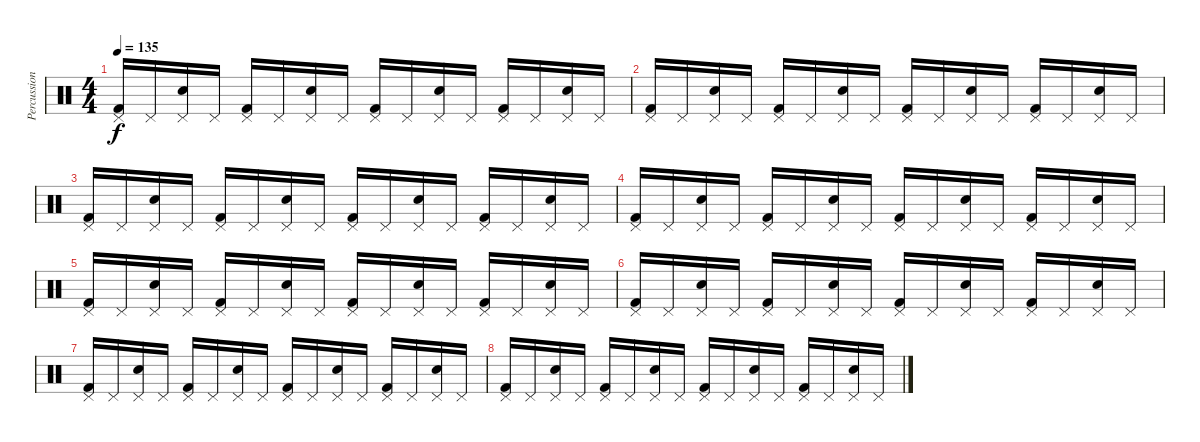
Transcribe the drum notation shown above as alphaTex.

\track ("Percussion" "Percussion") {instrument percussion}
\staff {score}
\articulation defaults
\ts (4 4)
\tempo 135
\clef neutral
\ks c
("Kick (hit) 2" "Pedal Hi-Hat (hit)").16{dy f} "Pedal Hi-Hat (hit)".16 ("Snare (hit) 2" "Pedal Hi-Hat (hit)").16 "Pedal Hi-Hat (hit)".16 ("Kick (hit) 2" "Pedal Hi-Hat (hit)").16 "Pedal Hi-Hat (hit)".16 ("Snare (hit) 2" "Pedal Hi-Hat (hit)").16 "Pedal Hi-Hat (hit)".16 ("Kick (hit) 2" "Pedal Hi-Hat (hit)").16 "Pedal Hi-Hat (hit)".16 ("Snare (hit) 2" "Pedal Hi-Hat (hit)").16 "Pedal Hi-Hat (hit)".16 ("Kick (hit) 2" "Pedal Hi-Hat (hit)").16 "Pedal Hi-Hat (hit)".16 ("Snare (hit) 2" "Pedal Hi-Hat (hit)").16 "Pedal Hi-Hat (hit)".16 |
("Kick (hit) 2" "Pedal Hi-Hat (hit)").16 "Pedal Hi-Hat (hit)".16 ("Snare (hit) 2" "Pedal Hi-Hat (hit)").16 "Pedal Hi-Hat (hit)".16 ("Kick (hit) 2" "Pedal Hi-Hat (hit)").16 "Pedal Hi-Hat (hit)".16 ("Snare (hit) 2" "Pedal Hi-Hat (hit)").16 "Pedal Hi-Hat (hit)".16 ("Kick (hit) 2" "Pedal Hi-Hat (hit)").16 "Pedal Hi-Hat (hit)".16 ("Snare (hit) 2" "Pedal Hi-Hat (hit)").16 "Pedal Hi-Hat (hit)".16 ("Kick (hit) 2" "Pedal Hi-Hat (hit)").16 "Pedal Hi-Hat (hit)".16 ("Snare (hit) 2" "Pedal Hi-Hat (hit)").16 "Pedal Hi-Hat (hit)".16 |
("Kick (hit) 2" "Pedal Hi-Hat (hit)").16 "Pedal Hi-Hat (hit)".16 ("Snare (hit) 2" "Pedal Hi-Hat (hit)").16 "Pedal Hi-Hat (hit)".16 ("Kick (hit) 2" "Pedal Hi-Hat (hit)").16 "Pedal Hi-Hat (hit)".16 ("Snare (hit) 2" "Pedal Hi-Hat (hit)").16 "Pedal Hi-Hat (hit)".16 ("Kick (hit) 2" "Pedal Hi-Hat (hit)").16 "Pedal Hi-Hat (hit)".16 ("Snare (hit) 2" "Pedal Hi-Hat (hit)").16 "Pedal Hi-Hat (hit)".16 ("Kick (hit) 2" "Pedal Hi-Hat (hit)").16 "Pedal Hi-Hat (hit)".16 ("Snare (hit) 2" "Pedal Hi-Hat (hit)").16 "Pedal Hi-Hat (hit)".16 |
("Kick (hit) 2" "Pedal Hi-Hat (hit)").16 "Pedal Hi-Hat (hit)".16 ("Snare (hit) 2" "Pedal Hi-Hat (hit)").16 "Pedal Hi-Hat (hit)".16 ("Kick (hit) 2" "Pedal Hi-Hat (hit)").16 "Pedal Hi-Hat (hit)".16 ("Snare (hit) 2" "Pedal Hi-Hat (hit)").16 "Pedal Hi-Hat (hit)".16 ("Kick (hit) 2" "Pedal Hi-Hat (hit)").16 "Pedal Hi-Hat (hit)".16 ("Snare (hit) 2" "Pedal Hi-Hat (hit)").16 "Pedal Hi-Hat (hit)".16 ("Kick (hit) 2" "Pedal Hi-Hat (hit)").16 "Pedal Hi-Hat (hit)".16 ("Snare (hit) 2" "Pedal Hi-Hat (hit)").16 "Pedal Hi-Hat (hit)".16 |
("Kick (hit) 2" "Pedal Hi-Hat (hit)").16 "Pedal Hi-Hat (hit)".16 ("Snare (hit) 2" "Pedal Hi-Hat (hit)").16 "Pedal Hi-Hat (hit)".16 ("Kick (hit) 2" "Pedal Hi-Hat (hit)").16 "Pedal Hi-Hat (hit)".16 ("Snare (hit) 2" "Pedal Hi-Hat (hit)").16 "Pedal Hi-Hat (hit)".16 ("Kick (hit) 2" "Pedal Hi-Hat (hit)").16 "Pedal Hi-Hat (hit)".16 ("Snare (hit) 2" "Pedal Hi-Hat (hit)").16 "Pedal Hi-Hat (hit)".16 ("Kick (hit) 2" "Pedal Hi-Hat (hit)").16 "Pedal Hi-Hat (hit)".16 ("Snare (hit) 2" "Pedal Hi-Hat (hit)").16 "Pedal Hi-Hat (hit)".16 |
("Kick (hit) 2" "Pedal Hi-Hat (hit)").16 "Pedal Hi-Hat (hit)".16 ("Snare (hit) 2" "Pedal Hi-Hat (hit)").16 "Pedal Hi-Hat (hit)".16 ("Kick (hit) 2" "Pedal Hi-Hat (hit)").16 "Pedal Hi-Hat (hit)".16 ("Snare (hit) 2" "Pedal Hi-Hat (hit)").16 "Pedal Hi-Hat (hit)".16 ("Kick (hit) 2" "Pedal Hi-Hat (hit)").16 "Pedal Hi-Hat (hit)".16 ("Snare (hit) 2" "Pedal Hi-Hat (hit)").16 "Pedal Hi-Hat (hit)".16 ("Kick (hit) 2" "Pedal Hi-Hat (hit)").16 "Pedal Hi-Hat (hit)".16 ("Snare (hit) 2" "Pedal Hi-Hat (hit)").16 "Pedal Hi-Hat (hit)".16 |
("Kick (hit) 2" "Pedal Hi-Hat (hit)").16 "Pedal Hi-Hat (hit)".16 ("Snare (hit) 2" "Pedal Hi-Hat (hit)").16 "Pedal Hi-Hat (hit)".16 ("Kick (hit) 2" "Pedal Hi-Hat (hit)").16 "Pedal Hi-Hat (hit)".16 ("Snare (hit) 2" "Pedal Hi-Hat (hit)").16 "Pedal Hi-Hat (hit)".16 ("Kick (hit) 2" "Pedal Hi-Hat (hit)").16 "Pedal Hi-Hat (hit)".16 ("Snare (hit) 2" "Pedal Hi-Hat (hit)").16 "Pedal Hi-Hat (hit)".16 ("Kick (hit) 2" "Pedal Hi-Hat (hit)").16 "Pedal Hi-Hat (hit)".16 ("Snare (hit) 2" "Pedal Hi-Hat (hit)").16 "Pedal Hi-Hat (hit)".16 |
("Kick (hit) 2" "Pedal Hi-Hat (hit)").16 "Pedal Hi-Hat (hit)".16 ("Snare (hit) 2" "Pedal Hi-Hat (hit)").16 "Pedal Hi-Hat (hit)".16 ("Kick (hit) 2" "Pedal Hi-Hat (hit)").16 "Pedal Hi-Hat (hit)".16 ("Snare (hit) 2" "Pedal Hi-Hat (hit)").16 "Pedal Hi-Hat (hit)".16 ("Kick (hit) 2" "Pedal Hi-Hat (hit)").16 "Pedal Hi-Hat (hit)".16 ("Snare (hit) 2" "Pedal Hi-Hat (hit)").16 "Pedal Hi-Hat (hit)".16 ("Kick (hit) 2" "Pedal Hi-Hat (hit)").16 "Pedal Hi-Hat (hit)".16 ("Snare (hit) 2" "Pedal Hi-Hat (hit)").16 "Pedal Hi-Hat (hit)".16
